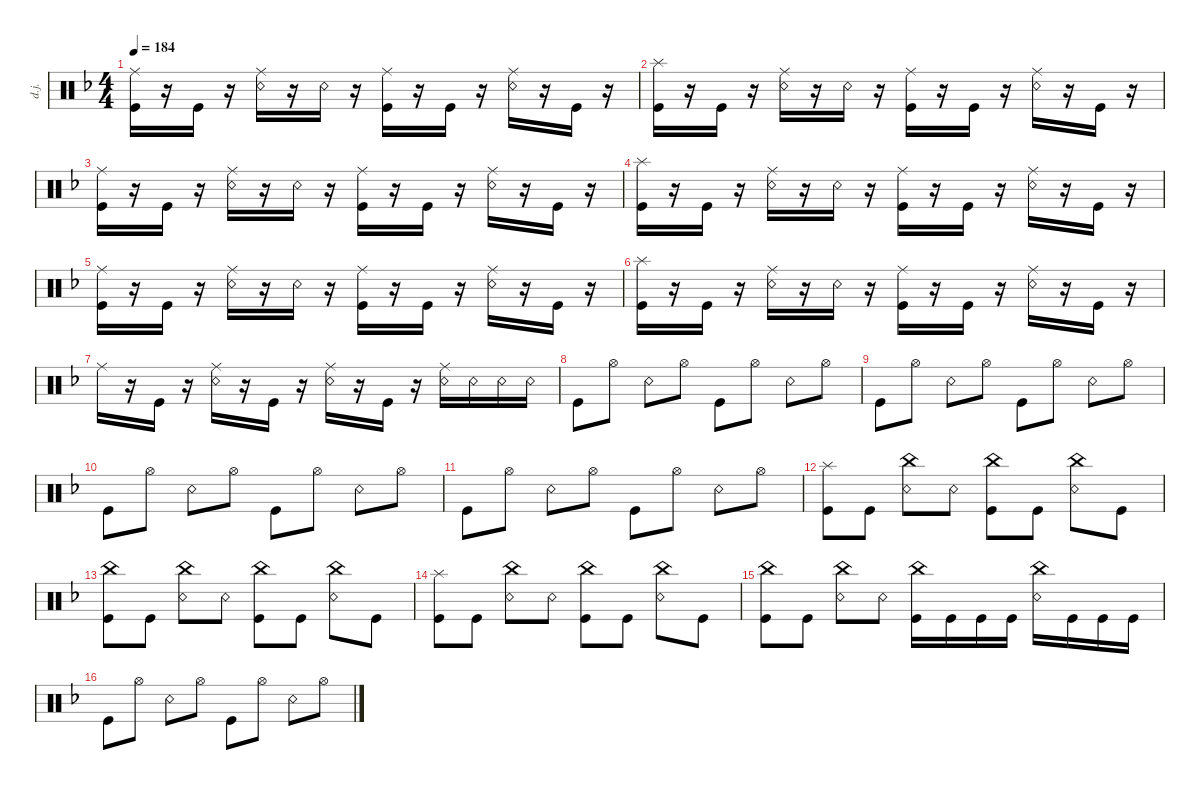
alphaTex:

\defaultSystemsLayout 4
\hideDynamics
\bracketExtendMode nobrackets
\otherSystemsTrackNameOrientation horizontal
\track ("Drumkit Jason" "d.j.") {instrument percussion}
\staff {score}
\articulation defaults
\ts (4 4)
\tempo 184
\clef neutral
\ks dminor
("Kick (hit)" "Ride (middle)").16{dy ff} r.16 "Kick (hit)".16 r.16 ("Snare (rim shot)" "Ride (middle)").16 r.16 "Snare (rim shot)".16 r.16 ("Kick (hit)" "Ride (middle)").16 r.16 "Kick (hit)".16 r.16 ("Snare (rim shot)" "Ride (middle)").16 r.16 "Kick (hit)".16 r.16 |
("Kick (hit)" "Splash (hit)").16 r.16 "Kick (hit)".16 r.16 ("Snare (rim shot)" "Ride (middle)").16 r.16 "Snare (rim shot)".16 r.16 ("Kick (hit)" "Ride (middle)").16 r.16 "Kick (hit)".16 r.16 ("Snare (rim shot)" "Ride (middle)").16 r.16 "Kick (hit)".16 r.16 |
("Kick (hit)" "Ride (middle)").16 r.16 "Kick (hit)".16 r.16 ("Snare (rim shot)" "Ride (middle)").16 r.16 "Snare (rim shot)".16 r.16 ("Kick (hit)" "Ride (middle)").16 r.16 "Kick (hit)".16 r.16 ("Snare (rim shot)" "Ride (middle)").16 r.16 "Kick (hit)".16 r.16 |
("Kick (hit)" "Splash (hit)").16 r.16 "Kick (hit)".16 r.16 ("Snare (rim shot)" "Ride (middle)").16 r.16 "Snare (rim shot)".16 r.16 ("Kick (hit)" "Ride (middle)").16 r.16 "Kick (hit)".16 r.16 ("Snare (rim shot)" "Ride (middle)").16 r.16 "Kick (hit)".16 r.16 |
("Kick (hit)" "Ride (middle)").16 r.16 "Kick (hit)".16 r.16 ("Snare (rim shot)" "Ride (middle)").16 r.16 "Snare (rim shot)".16 r.16 ("Kick (hit)" "Ride (middle)").16 r.16 "Kick (hit)".16 r.16 ("Snare (rim shot)" "Ride (middle)").16 r.16 "Kick (hit)".16 r.16 |
("Kick (hit)" "Splash (hit)").16 r.16 "Kick (hit)".16 r.16 ("Snare (rim shot)" "Ride (middle)").16 r.16 "Snare (rim shot)".16 r.16 ("Kick (hit)" "Ride (middle)").16 r.16 "Kick (hit)".16 r.16 ("Snare (rim shot)" "Ride (middle)").16 r.16 "Kick (hit)".16 r.16 |
"Ride (middle)".16 r.16 "Kick (hit)".16 r.16 ("Snare (rim shot)" "Ride (middle)").16 r.16 "Kick (hit)".16 r.16 ("Snare (rim shot)" "Ride (middle)").16 r.16 "Kick (hit)".16 r.16 ("Snare (rim shot)" "Ride (middle)").16 "Snare (rim shot)".16 "Snare (rim shot)".16 "Snare (rim shot)".16 |
"Kick (hit)".8 "Hi-Hat (open)".8 "Snare (rim shot)".8 "Hi-Hat (open)".8 "Kick (hit)".8 "Hi-Hat (open)".8 "Snare (rim shot)".8 "Hi-Hat (open)".8 |
"Kick (hit)".8 "Hi-Hat (open)".8 "Snare (rim shot)".8 "Hi-Hat (open)".8 "Kick (hit)".8 "Hi-Hat (open)".8 "Snare (rim shot)".8 "Hi-Hat (open)".8 |
"Kick (hit)".8 "Hi-Hat (open)".8 "Snare (rim shot)".8 "Hi-Hat (open)".8 "Kick (hit)".8 "Hi-Hat (open)".8 "Snare (rim shot)".8 "Hi-Hat (open)".8 |
"Kick (hit)".8 "Hi-Hat (open)".8 "Snare (rim shot)".8 "Hi-Hat (open)".8 "Kick (hit)".8 "Hi-Hat (open)".8 "Snare (rim shot)".8 "Hi-Hat (open)".8 |
("Kick (hit)" "Splash (hit)").8 "Kick (hit)".8 ("Snare (rim shot)" "China (hit)").8 "Snare (rim shot)".8 ("Kick (hit)" "China (hit)").8 "Kick (hit)".8 ("Snare (rim shot)" "China (hit)").8 "Kick (hit)".8 |
("Kick (hit)" "China (hit)").8 "Kick (hit)".8 ("Snare (rim shot)" "China (hit)").8 "Snare (rim shot)".8 ("Kick (hit)" "China (hit)").8 "Kick (hit)".8 ("Snare (rim shot)" "China (hit)").8 "Kick (hit)".8 |
("Kick (hit)" "Splash (hit)").8 "Kick (hit)".8 ("Snare (rim shot)" "China (hit)").8 "Snare (rim shot)".8 ("Kick (hit)" "China (hit)").8 "Kick (hit)".8 ("Snare (rim shot)" "China (hit)").8 "Kick (hit)".8 |
("Kick (hit)" "China (hit)").8 "Kick (hit)".8 ("Snare (rim shot)" "China (hit)").8 "Snare (rim shot)".8 ("Kick (hit)" "China (hit)").16 "Kick (hit)".16 "Kick (hit)".16 "Kick (hit)".16 ("Snare (rim shot)" "China (hit)").16 "Kick (hit)".16 "Kick (hit)".16 "Kick (hit)".16 |
"Kick (hit)".8 "Hi-Hat (open)".8 "Snare (rim shot)".8 "Hi-Hat (open)".8 "Kick (hit)".8 "Hi-Hat (open)".8 "Snare (rim shot)".8 "Hi-Hat (open)".8
